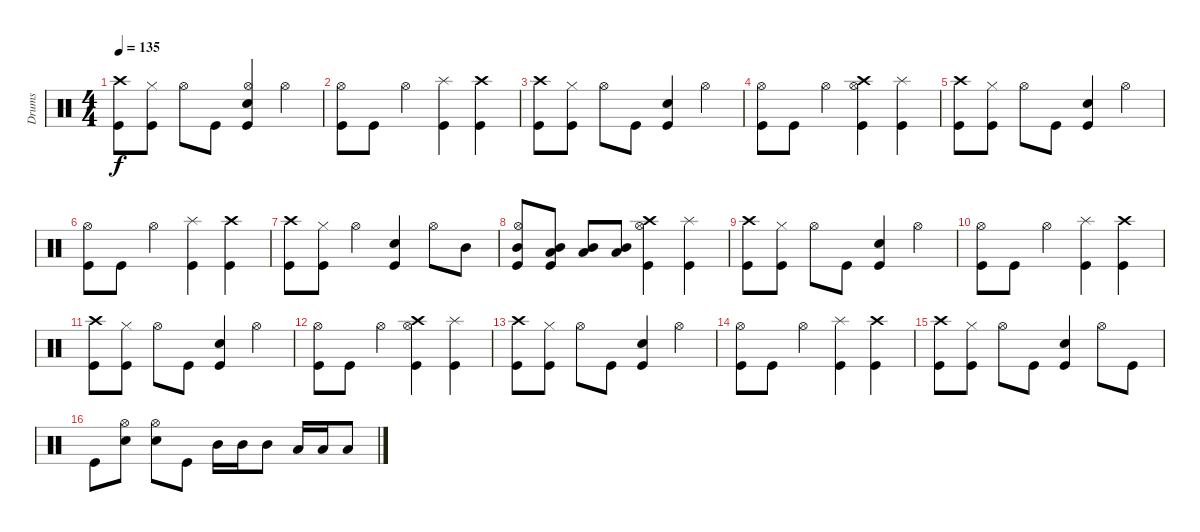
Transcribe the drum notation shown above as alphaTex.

\track ("Drums" "Drums") {instrument percussion}
\staff {score}
\articulation defaults
\ts (4 4)
\tempo 135
\clef neutral
\ks c
("Crash high (hit)" "Kick (hit)").8{dy f} ("Hi-Hat (closed)" "Kick (hit)").8 "Hi-Hat (open)".8 "Kick (hit)".8 ("Hi-Hat (open)" "Snare (hit) 2" "Kick (hit)").4 "Hi-Hat (open)".4 |
("Hi-Hat (open)" "Kick (hit)").8 "Kick (hit)".8 "Hi-Hat (open)".4 ("Splash (hit)" "Kick (hit)").4 ("Crash high (hit)" "Kick (hit)").4 |
("Crash high (hit)" "Kick (hit)").8 ("Hi-Hat (closed)" "Kick (hit)").8 "Hi-Hat (open)".8 "Kick (hit)".8 ("Snare (hit) 2" "Kick (hit)").4 "Hi-Hat (open)".4 |
("Hi-Hat (open)" "Kick (hit)").8 "Kick (hit)".8 "Hi-Hat (open)".4 ("Crash high (hit)" "Hi-Hat (open)" "Kick (hit)").4 ("Splash (hit)" "Kick (hit)").4 |
("Crash high (hit)" "Kick (hit)").8 ("Hi-Hat (closed)" "Kick (hit)").8 "Hi-Hat (open)".8 "Kick (hit)".8 ("Snare (hit) 2" "Kick (hit)").4 "Hi-Hat (open)".4 |
("Hi-Hat (open)" "Kick (hit)").8 "Kick (hit)".8 "Hi-Hat (open)".4 ("Splash (hit)" "Kick (hit)").4 ("Crash high (hit)" "Kick (hit)").4 |
("Crash high (hit)" "Kick (hit)").8 ("Hi-Hat (closed)" "Kick (hit)").8 "Hi-Hat (open)".4 ("Snare (hit) 2" "Kick (hit)").4 "Hi-Hat (open)".8 "Mid Tom (hit)".8 |
("Mid Tom (hit)" "Hi-Hat (open)" "Kick (hit)").8 ("Mid Tom (hit)" "Low Tom (hit)" "Kick (hit)").8 ("Mid Tom (hit)" "Low Tom (hit)").8 ("Mid Tom (hit)" "Low Tom (hit)").8 ("Crash high (hit)" "Hi-Hat (open)" "Kick (hit)").4 ("Splash (hit)" "Kick (hit)").4 |
("Crash high (hit)" "Kick (hit)").8 ("Hi-Hat (closed)" "Kick (hit)").8 "Hi-Hat (open)".8 "Kick (hit)".8 ("Snare (hit) 2" "Kick (hit)").4 "Hi-Hat (open)".4 |
("Hi-Hat (open)" "Kick (hit)").8 "Kick (hit)".8 "Hi-Hat (open)".4 ("Splash (hit)" "Kick (hit)").4 ("Crash high (hit)" "Kick (hit)").4 |
("Crash high (hit)" "Kick (hit)").8 ("Hi-Hat (closed)" "Kick (hit)").8 "Hi-Hat (open)".8 "Kick (hit)".8 ("Snare (hit) 2" "Kick (hit)").4 "Hi-Hat (open)".4 |
("Hi-Hat (open)" "Kick (hit)").8 "Kick (hit)".8 "Hi-Hat (open)".4 ("Crash high (hit)" "Hi-Hat (open)" "Kick (hit)").4 ("Splash (hit)" "Kick (hit)").4 |
("Crash high (hit)" "Kick (hit)").8 ("Hi-Hat (closed)" "Kick (hit)").8 "Hi-Hat (open)".8 "Kick (hit)".8 ("Snare (hit) 2" "Kick (hit)").4 "Hi-Hat (open)".4 |
("Hi-Hat (open)" "Kick (hit)").8 "Kick (hit)".8 "Hi-Hat (open)".4 ("Splash (hit)" "Kick (hit)").4 ("Crash high (hit)" "Kick (hit)").4 |
("Crash high (hit)" "Kick (hit)").8 ("Hi-Hat (closed)" "Kick (hit)").8 "Hi-Hat (open)".8 "Kick (hit)".8 ("Snare (hit) 2" "Kick (hit)").4 "Hi-Hat (open)".8 "Kick (hit)".8 |
"Kick (hit)".8 ("Hi-Hat (open)" "Snare (hit) 2").8 ("Hi-Hat (open)" "Snare (hit) 2").8 "Kick (hit)".8 "Mid Tom (hit)".16 "Mid Tom (hit)".16 "Mid Tom (hit)".8 "Low Tom (hit)".16 "Low Tom (hit)".16 "Low Tom (hit)".8
